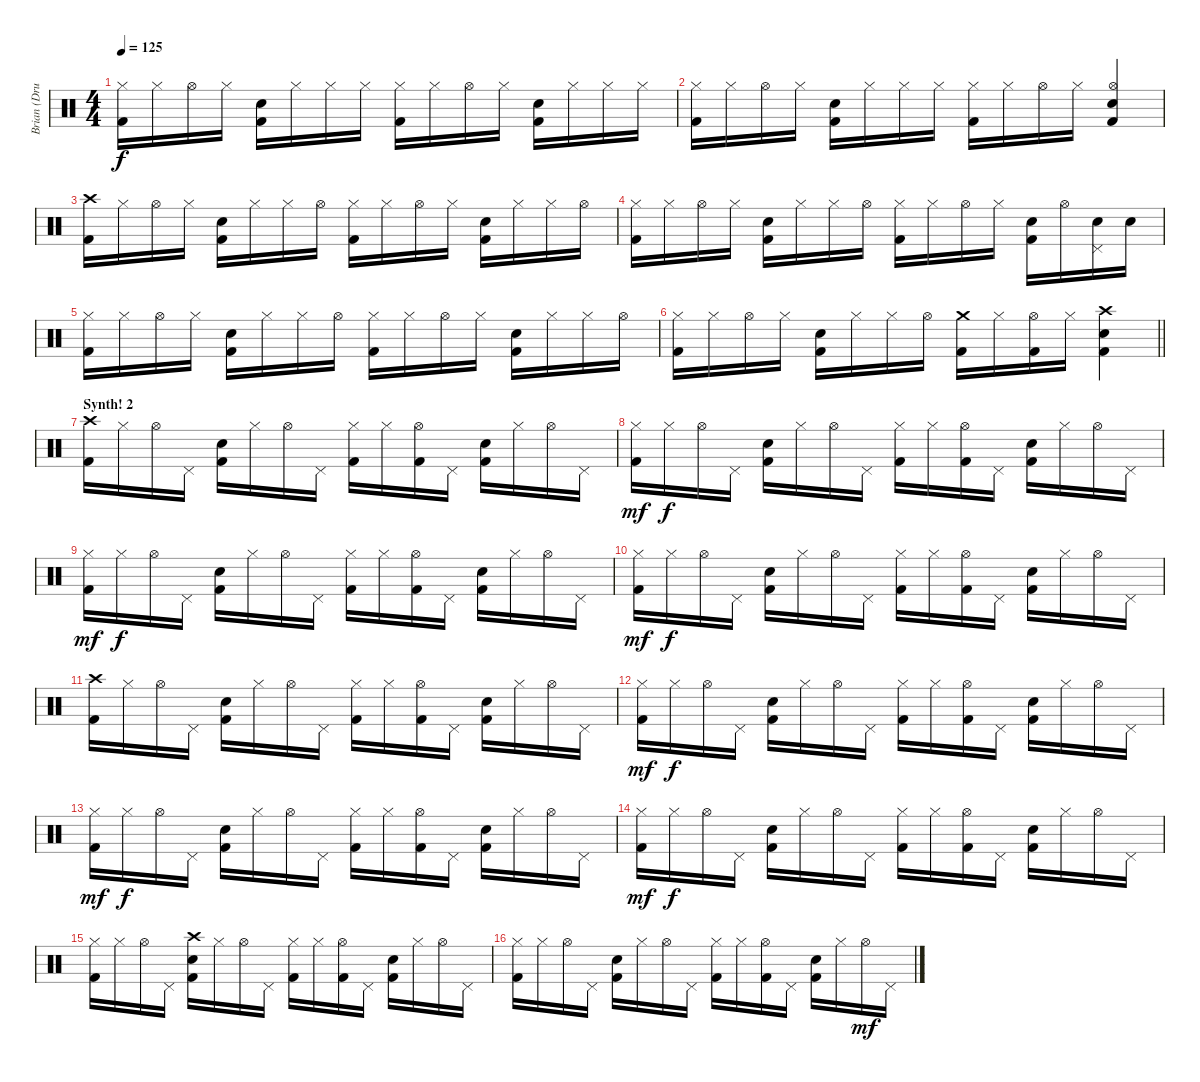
\track ("Brian (Drums)" "Brian (Dru") {instrument percussion}
\staff {score}
\articulation defaults
\ts (4 4)
\tempo 125
\clef neutral
\ks c
("Hi-Hat (closed)" "Kick (hit) 2").16{dy f} "Hi-Hat (closed)".16 "Hi-Hat (open)".16 "Hi-Hat (closed)".16 ("Electric Snare (hit)" "Kick (hit) 2").16 "Hi-Hat (closed)".16 "Hi-Hat (closed)".16 "Hi-Hat (closed)".16 ("Hi-Hat (closed)" "Kick (hit) 2").16 "Hi-Hat (closed)".16 "Hi-Hat (open)".16 "Hi-Hat (closed)".16 ("Electric Snare (hit)" "Kick (hit) 2").16 "Hi-Hat (closed)".16 "Hi-Hat (closed)".16 "Hi-Hat (closed)".16 |
("Hi-Hat (closed)" "Kick (hit) 2").16 "Hi-Hat (closed)".16 "Hi-Hat (open)".16 "Hi-Hat (closed)".16 ("Electric Snare (hit)" "Kick (hit) 2").16 "Hi-Hat (closed)".16 "Hi-Hat (closed)".16 "Hi-Hat (closed)".16 ("Hi-Hat (closed)" "Kick (hit) 2").16 "Hi-Hat (closed)".16 "Hi-Hat (open)".16 "Hi-Hat (closed)".16 ("Hi-Hat (open)" "Electric Snare (hit)" "Kick (hit) 2").4 |
("Crash high (hit)" "Kick (hit) 2").16 "Hi-Hat (closed)".16 "Hi-Hat (open)".16 "Hi-Hat (closed)".16 ("Electric Snare (hit)" "Kick (hit) 2").16 "Hi-Hat (closed)".16 "Hi-Hat (closed)".16 "Hi-Hat (open)".16 ("Hi-Hat (closed)" "Kick (hit) 2").16 "Hi-Hat (closed)".16 "Hi-Hat (open)".16 "Hi-Hat (closed)".16 ("Electric Snare (hit)" "Kick (hit) 2").16 "Hi-Hat (closed)".16 "Hi-Hat (closed)".16 "Hi-Hat (open)".16 |
("Hi-Hat (closed)" "Kick (hit) 2").16 "Hi-Hat (closed)".16 "Hi-Hat (open)".16 "Hi-Hat (closed)".16 ("Electric Snare (hit)" "Kick (hit) 2").16 "Hi-Hat (closed)".16 "Hi-Hat (closed)".16 "Hi-Hat (open)".16 ("Hi-Hat (closed)" "Kick (hit) 2").16 "Hi-Hat (closed)".16 "Hi-Hat (open)".16 "Hi-Hat (closed)".16 ("Electric Snare (hit)" "Kick (hit) 2").16 "Hi-Hat (open)".16 ("Pedal Hi-Hat (hit)" "Electric Snare (hit)").16 "Electric Snare (hit)".16 |
("Hi-Hat (closed)" "Kick (hit) 2").16 "Hi-Hat (closed)".16 "Hi-Hat (open)".16 "Hi-Hat (closed)".16 ("Electric Snare (hit)" "Kick (hit) 2").16 "Hi-Hat (closed)".16 "Hi-Hat (closed)".16 "Hi-Hat (open)".16 ("Hi-Hat (closed)" "Kick (hit) 2").16 "Hi-Hat (closed)".16 "Hi-Hat (open)".16 "Hi-Hat (closed)".16 ("Electric Snare (hit)" "Kick (hit) 2").16 "Hi-Hat (closed)".16 "Hi-Hat (closed)".16 "Hi-Hat (open)".16 |
\barLineRight lightlight
("Hi-Hat (closed)" "Kick (hit) 2").16 "Hi-Hat (closed)".16 "Hi-Hat (open)".16 "Hi-Hat (closed)".16 ("Electric Snare (hit)" "Kick (hit) 2").16 "Hi-Hat (closed)".16 "Hi-Hat (closed)".16 "Hi-Hat (open)".16 ("Crash medium (hit)" "Kick (hit) 2").16 "Hi-Hat (closed)".16 ("Hi-Hat (open)" "Kick (hit) 2").16 "Hi-Hat (closed)".16 ("Crash high (hit)" "Electric Snare (hit)" "Kick (hit) 2").4 |
\section ("" "Synth! 2")
("Crash high (hit)" "Kick (hit) 2").16 "Hi-Hat (closed)".16 "Hi-Hat (open)".16 "Pedal Hi-Hat (hit)".16 ("Electric Snare (hit)" "Kick (hit) 2").16 "Hi-Hat (closed)".16 "Hi-Hat (open)".16 "Pedal Hi-Hat (hit)".16 ("Hi-Hat (closed)" "Kick (hit) 2").16 "Hi-Hat (closed)".16 ("Hi-Hat (open)" "Kick (hit) 2").16 "Pedal Hi-Hat (hit)".16 ("Electric Snare (hit)" "Kick (hit) 2").16 "Hi-Hat (closed)".16 "Hi-Hat (open)".16 "Pedal Hi-Hat (hit)".16 |
("Hi-Hat (closed)" "Kick (hit) 2").16{dy mf} "Hi-Hat (closed)".16{dy f} "Hi-Hat (open)".16 "Pedal Hi-Hat (hit)".16 ("Electric Snare (hit)" "Kick (hit) 2").16 "Hi-Hat (closed)".16 "Hi-Hat (open)".16 "Pedal Hi-Hat (hit)".16 ("Hi-Hat (closed)" "Kick (hit) 2").16 "Hi-Hat (closed)".16 ("Hi-Hat (open)" "Kick (hit) 2").16 "Pedal Hi-Hat (hit)".16 ("Electric Snare (hit)" "Kick (hit) 2").16 "Hi-Hat (closed)".16 "Hi-Hat (open)".16 "Pedal Hi-Hat (hit)".16 |
("Hi-Hat (closed)" "Kick (hit) 2").16{dy mf} "Hi-Hat (closed)".16{dy f} "Hi-Hat (open)".16 "Pedal Hi-Hat (hit)".16 ("Electric Snare (hit)" "Kick (hit) 2").16 "Hi-Hat (closed)".16 "Hi-Hat (open)".16 "Pedal Hi-Hat (hit)".16 ("Hi-Hat (closed)" "Kick (hit) 2").16 "Hi-Hat (closed)".16 ("Hi-Hat (open)" "Kick (hit) 2").16 "Pedal Hi-Hat (hit)".16 ("Electric Snare (hit)" "Kick (hit) 2").16 "Hi-Hat (closed)".16 "Hi-Hat (open)".16 "Pedal Hi-Hat (hit)".16 |
("Hi-Hat (closed)" "Kick (hit) 2").16{dy mf} "Hi-Hat (closed)".16{dy f} "Hi-Hat (open)".16 "Pedal Hi-Hat (hit)".16 ("Electric Snare (hit)" "Kick (hit) 2").16 "Hi-Hat (closed)".16 "Hi-Hat (open)".16 "Pedal Hi-Hat (hit)".16 ("Hi-Hat (closed)" "Kick (hit) 2").16 "Hi-Hat (closed)".16 ("Hi-Hat (open)" "Kick (hit) 2").16 "Pedal Hi-Hat (hit)".16 ("Electric Snare (hit)" "Kick (hit) 2").16 "Hi-Hat (closed)".16 "Hi-Hat (open)".16 "Pedal Hi-Hat (hit)".16 |
("Crash high (hit)" "Kick (hit) 2").16 "Hi-Hat (closed)".16 "Hi-Hat (open)".16 "Pedal Hi-Hat (hit)".16 ("Electric Snare (hit)" "Kick (hit) 2").16 "Hi-Hat (closed)".16 "Hi-Hat (open)".16 "Pedal Hi-Hat (hit)".16 ("Hi-Hat (closed)" "Kick (hit) 2").16 "Hi-Hat (closed)".16 ("Hi-Hat (open)" "Kick (hit) 2").16 "Pedal Hi-Hat (hit)".16 ("Electric Snare (hit)" "Kick (hit) 2").16 "Hi-Hat (closed)".16 "Hi-Hat (open)".16 "Pedal Hi-Hat (hit)".16 |
("Hi-Hat (closed)" "Kick (hit) 2").16{dy mf} "Hi-Hat (closed)".16{dy f} "Hi-Hat (open)".16 "Pedal Hi-Hat (hit)".16 ("Electric Snare (hit)" "Kick (hit) 2").16 "Hi-Hat (closed)".16 "Hi-Hat (open)".16 "Pedal Hi-Hat (hit)".16 ("Hi-Hat (closed)" "Kick (hit) 2").16 "Hi-Hat (closed)".16 ("Hi-Hat (open)" "Kick (hit) 2").16 "Pedal Hi-Hat (hit)".16 ("Electric Snare (hit)" "Kick (hit) 2").16 "Hi-Hat (closed)".16 "Hi-Hat (open)".16 "Pedal Hi-Hat (hit)".16 |
("Hi-Hat (closed)" "Kick (hit) 2").16{dy mf} "Hi-Hat (closed)".16{dy f} "Hi-Hat (open)".16 "Pedal Hi-Hat (hit)".16 ("Electric Snare (hit)" "Kick (hit) 2").16 "Hi-Hat (closed)".16 "Hi-Hat (open)".16 "Pedal Hi-Hat (hit)".16 ("Hi-Hat (closed)" "Kick (hit) 2").16 "Hi-Hat (closed)".16 ("Hi-Hat (open)" "Kick (hit) 2").16 "Pedal Hi-Hat (hit)".16 ("Electric Snare (hit)" "Kick (hit) 2").16 "Hi-Hat (closed)".16 "Hi-Hat (open)".16 "Pedal Hi-Hat (hit)".16 |
("Hi-Hat (closed)" "Kick (hit) 2").16{dy mf} "Hi-Hat (closed)".16{dy f} "Hi-Hat (open)".16 "Pedal Hi-Hat (hit)".16 ("Electric Snare (hit)" "Kick (hit) 2").16 "Hi-Hat (closed)".16 "Hi-Hat (open)".16 "Pedal Hi-Hat (hit)".16 ("Hi-Hat (closed)" "Kick (hit) 2").16 "Hi-Hat (closed)".16 ("Hi-Hat (open)" "Kick (hit) 2").16 "Pedal Hi-Hat (hit)".16 ("Electric Snare (hit)" "Kick (hit) 2").16 "Hi-Hat (closed)".16 "Hi-Hat (open)".16 "Pedal Hi-Hat (hit)".16 |
("Hi-Hat (closed)" "Kick (hit) 2").16 "Hi-Hat (closed)".16 "Hi-Hat (open)".16 "Pedal Hi-Hat (hit)".16 ("Crash high (hit)" "Electric Snare (hit)" "Kick (hit) 2").16 "Hi-Hat (closed)".16 "Hi-Hat (open)".16 "Pedal Hi-Hat (hit)".16 ("Hi-Hat (closed)" "Kick (hit) 2").16 "Hi-Hat (closed)".16 ("Hi-Hat (open)" "Kick (hit) 2").16 "Pedal Hi-Hat (hit)".16 ("Electric Snare (hit)" "Kick (hit) 2").16 "Hi-Hat (closed)".16 "Hi-Hat (open)".16 "Pedal Hi-Hat (hit)".16 |
("Hi-Hat (closed)" "Kick (hit) 2").16 "Hi-Hat (closed)".16 "Hi-Hat (open)".16 "Pedal Hi-Hat (hit)".16 ("Electric Snare (hit)" "Kick (hit) 2").16 "Hi-Hat (closed)".16 "Hi-Hat (open)".16 "Pedal Hi-Hat (hit)".16 ("Hi-Hat (closed)" "Kick (hit) 2").16 "Hi-Hat (closed)".16 ("Hi-Hat (open)" "Kick (hit) 2").16 "Pedal Hi-Hat (hit)".16 ("Electric Snare (hit)" "Kick (hit) 2").16 "Hi-Hat (closed)".16 "Hi-Hat (open)".16{dy mf} "Pedal Hi-Hat (hit)".16
